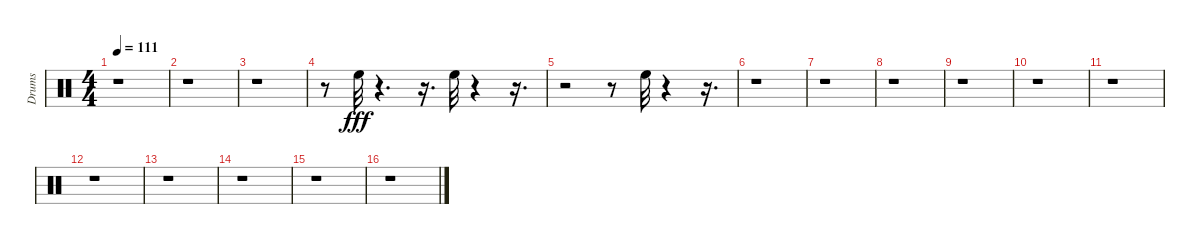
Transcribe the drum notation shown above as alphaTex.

\track ("Drums" "Drums") {instrument percussion}
\staff {score}
\articulation defaults
\ts (4 4)
\tempo 111
\clef neutral
\ks c
r.1{dy ff} |
r.1 |
r.1 |
r.8 "High Floor Tom (hit)".32{dy fff} r.4{d} r.16{d} "High Floor Tom (hit)".32 r.4 r.16{d} |
r.2 r.8 "High Floor Tom (hit)".32 r.4 r.16{d} |
r.1 |
r.1 |
r.1 |
r.1 |
r.1 |
r.1 |
r.1 |
r.1 |
r.1 |
r.1 |
r.1
